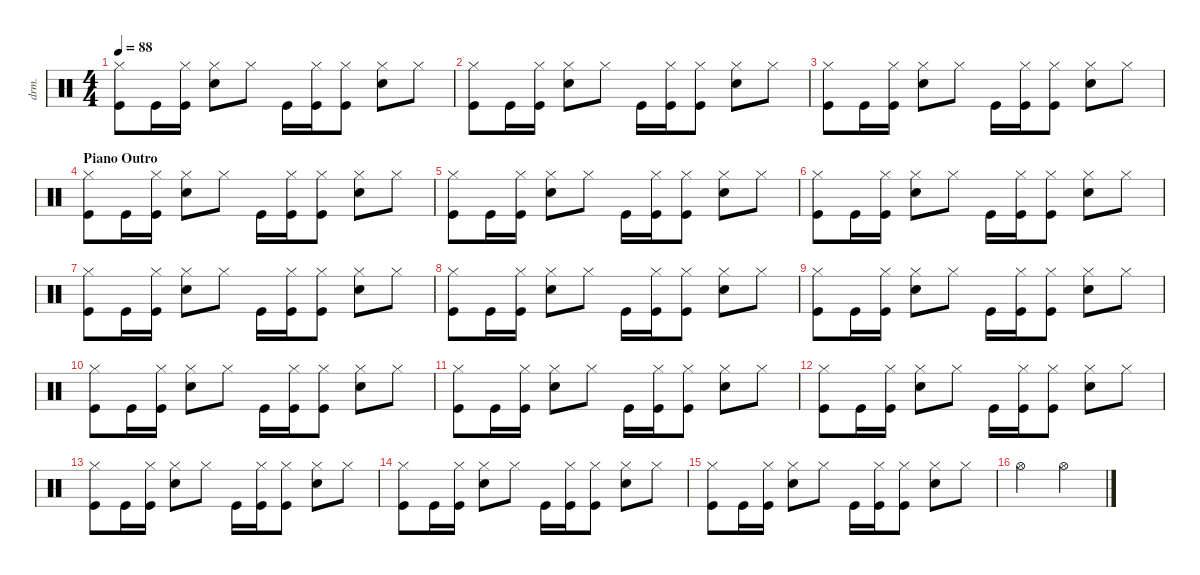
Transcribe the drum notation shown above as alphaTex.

\defaultSystemsLayout 4
\hideDynamics
\bracketExtendMode nobrackets
\otherSystemsTrackNameOrientation horizontal
\track ("Drums" "drm.") {instrument percussion}
\staff {score}
\articulation defaults
\ts (4 4)
\tempo 88
\clef neutral
\ks c
("Hi-Hat (closed)" "Kick (hit)").8{dy f} "Kick (hit)".16 ("Hi-Hat (closed)" "Kick (hit)").16 ("Hi-Hat (closed)" "Snare (hit) 2").8 "Hi-Hat (closed)".8 "Kick (hit)".16 ("Hi-Hat (closed)" "Kick (hit)").16 ("Hi-Hat (closed)" "Kick (hit)").8 ("Hi-Hat (closed)" "Snare (hit) 2").8 "Hi-Hat (closed)".8 |
("Hi-Hat (closed)" "Kick (hit)").8 "Kick (hit)".16 ("Hi-Hat (closed)" "Kick (hit)").16 ("Hi-Hat (closed)" "Snare (hit) 2").8 "Hi-Hat (closed)".8 "Kick (hit)".16 ("Hi-Hat (closed)" "Kick (hit)").16 ("Hi-Hat (closed)" "Kick (hit)").8 ("Hi-Hat (closed)" "Snare (hit) 2").8 "Hi-Hat (closed)".8 |
("Hi-Hat (closed)" "Kick (hit)").8 "Kick (hit)".16 ("Hi-Hat (closed)" "Kick (hit)").16 ("Hi-Hat (closed)" "Snare (hit) 2").8 "Hi-Hat (closed)".8 "Kick (hit)".16 ("Hi-Hat (closed)" "Kick (hit)").16 ("Hi-Hat (closed)" "Kick (hit)").8 ("Hi-Hat (closed)" "Snare (hit) 2").8 "Hi-Hat (closed)".8 |
\section ("" "Piano Outro")
("Hi-Hat (closed)" "Kick (hit)").8 "Kick (hit)".16 ("Hi-Hat (closed)" "Kick (hit)").16 ("Hi-Hat (closed)" "Snare (hit) 2").8 "Hi-Hat (closed)".8 "Kick (hit)".16 ("Hi-Hat (closed)" "Kick (hit)").16 ("Hi-Hat (closed)" "Kick (hit)").8 ("Hi-Hat (closed)" "Snare (hit) 2").8 "Hi-Hat (closed)".8 |
("Hi-Hat (closed)" "Kick (hit)").8 "Kick (hit)".16 ("Hi-Hat (closed)" "Kick (hit)").16 ("Hi-Hat (closed)" "Snare (hit) 2").8 "Hi-Hat (closed)".8 "Kick (hit)".16 ("Hi-Hat (closed)" "Kick (hit)").16 ("Hi-Hat (closed)" "Kick (hit)").8 ("Hi-Hat (closed)" "Snare (hit) 2").8 "Hi-Hat (closed)".8 |
("Hi-Hat (closed)" "Kick (hit)").8 "Kick (hit)".16 ("Hi-Hat (closed)" "Kick (hit)").16 ("Hi-Hat (closed)" "Snare (hit) 2").8 "Hi-Hat (closed)".8 "Kick (hit)".16 ("Hi-Hat (closed)" "Kick (hit)").16 ("Hi-Hat (closed)" "Kick (hit)").8 ("Hi-Hat (closed)" "Snare (hit) 2").8 "Hi-Hat (closed)".8 |
("Hi-Hat (closed)" "Kick (hit)").8 "Kick (hit)".16 ("Hi-Hat (closed)" "Kick (hit)").16 ("Hi-Hat (closed)" "Snare (hit) 2").8 "Hi-Hat (closed)".8 "Kick (hit)".16 ("Hi-Hat (closed)" "Kick (hit)").16 ("Hi-Hat (closed)" "Kick (hit)").8 ("Hi-Hat (closed)" "Snare (hit) 2").8 "Hi-Hat (closed)".8 |
("Hi-Hat (closed)" "Kick (hit)").8 "Kick (hit)".16 ("Hi-Hat (closed)" "Kick (hit)").16 ("Hi-Hat (closed)" "Snare (hit) 2").8 "Hi-Hat (closed)".8 "Kick (hit)".16 ("Hi-Hat (closed)" "Kick (hit)").16 ("Hi-Hat (closed)" "Kick (hit)").8 ("Hi-Hat (closed)" "Snare (hit) 2").8 "Hi-Hat (closed)".8 |
("Hi-Hat (closed)" "Kick (hit)").8 "Kick (hit)".16 ("Hi-Hat (closed)" "Kick (hit)").16 ("Hi-Hat (closed)" "Snare (hit) 2").8 "Hi-Hat (closed)".8 "Kick (hit)".16 ("Hi-Hat (closed)" "Kick (hit)").16 ("Hi-Hat (closed)" "Kick (hit)").8 ("Hi-Hat (closed)" "Snare (hit) 2").8 "Hi-Hat (closed)".8 |
("Hi-Hat (closed)" "Kick (hit)").8 "Kick (hit)".16 ("Hi-Hat (closed)" "Kick (hit)").16 ("Hi-Hat (closed)" "Snare (hit) 2").8 "Hi-Hat (closed)".8 "Kick (hit)".16 ("Hi-Hat (closed)" "Kick (hit)").16 ("Hi-Hat (closed)" "Kick (hit)").8 ("Hi-Hat (closed)" "Snare (hit) 2").8 "Hi-Hat (closed)".8 |
("Hi-Hat (closed)" "Kick (hit)").8 "Kick (hit)".16 ("Hi-Hat (closed)" "Kick (hit)").16 ("Hi-Hat (closed)" "Snare (hit) 2").8 "Hi-Hat (closed)".8 "Kick (hit)".16 ("Hi-Hat (closed)" "Kick (hit)").16 ("Hi-Hat (closed)" "Kick (hit)").8 ("Hi-Hat (closed)" "Snare (hit) 2").8 "Hi-Hat (closed)".8 |
("Hi-Hat (closed)" "Kick (hit)").8 "Kick (hit)".16 ("Hi-Hat (closed)" "Kick (hit)").16 ("Hi-Hat (closed)" "Snare (hit) 2").8 "Hi-Hat (closed)".8 "Kick (hit)".16 ("Hi-Hat (closed)" "Kick (hit)").16 ("Hi-Hat (closed)" "Kick (hit)").8 ("Hi-Hat (closed)" "Snare (hit) 2").8 "Hi-Hat (closed)".8 |
("Hi-Hat (closed)" "Kick (hit)").8 "Kick (hit)".16 ("Hi-Hat (closed)" "Kick (hit)").16 ("Hi-Hat (closed)" "Snare (hit) 2").8 "Hi-Hat (closed)".8 "Kick (hit)".16 ("Hi-Hat (closed)" "Kick (hit)").16 ("Hi-Hat (closed)" "Kick (hit)").8 ("Hi-Hat (closed)" "Snare (hit) 2").8 "Hi-Hat (closed)".8 |
("Hi-Hat (closed)" "Kick (hit)").8 "Kick (hit)".16 ("Hi-Hat (closed)" "Kick (hit)").16 ("Hi-Hat (closed)" "Snare (hit) 2").8 "Hi-Hat (closed)".8 "Kick (hit)".16 ("Hi-Hat (closed)" "Kick (hit)").16 ("Hi-Hat (closed)" "Kick (hit)").8 ("Hi-Hat (closed)" "Snare (hit) 2").8 "Hi-Hat (closed)".8 |
("Hi-Hat (closed)" "Kick (hit)").8 "Kick (hit)".16 ("Hi-Hat (closed)" "Kick (hit)").16 ("Hi-Hat (closed)" "Snare (hit) 2").8 "Hi-Hat (closed)".8 "Kick (hit)".16 ("Hi-Hat (closed)" "Kick (hit)").16 ("Hi-Hat (closed)" "Kick (hit)").8 ("Hi-Hat (closed)" "Snare (hit) 2").8 "Hi-Hat (closed)".8 |
"Hi-Hat (open)".2 "Hi-Hat (open)".2
